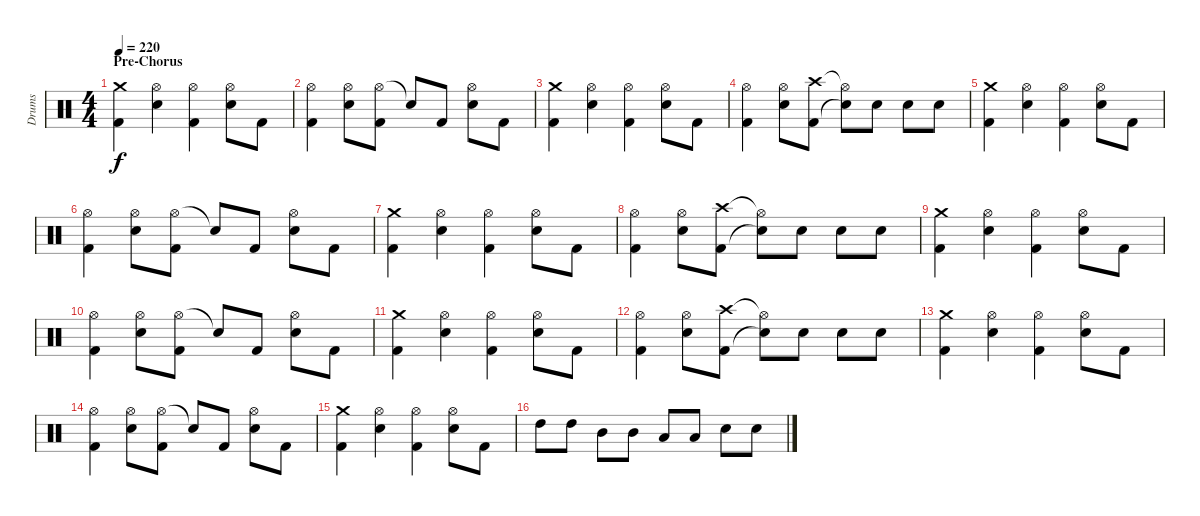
\track ("Drums" "Drums") {instrument percussion}
\staff {score}
\articulation defaults
\ts (4 4)
\section ("" "Pre-Chorus")
\tempo 220
\clef neutral
\ks c
("Crash medium (hit)" "Kick (hit) 2").4{dy f} ("Hi-Hat (open)" "Electric Snare (hit)").4 ("Hi-Hat (open)" "Kick (hit) 2").4 ("Hi-Hat (open)" "Electric Snare (hit)").8 "Kick (hit) 2".8 |
("Hi-Hat (open)" "Kick (hit) 2").4 ("Hi-Hat (open)" "Electric Snare (hit)").8 ("Hi-Hat (open)" "Kick (hit) 2").8 "Snare (hit)"{t}.8 "Kick (hit) 2".8 ("Hi-Hat (open)" "Electric Snare (hit)").8 "Kick (hit) 2".8 |
("Crash medium (hit)" "Kick (hit) 2").4 ("Hi-Hat (open)" "Electric Snare (hit)").4 ("Hi-Hat (open)" "Kick (hit) 2").4 ("Hi-Hat (open)" "Electric Snare (hit)").8 "Kick (hit) 2".8 |
("Hi-Hat (open)" "Kick (hit) 2").4 ("Hi-Hat (open)" "Electric Snare (hit)").8 ("Crash high (hit)" "Kick (hit) 2").8 ("Hi-Hat (open)"{t} "Snare (hit)"{t}).8 "Electric Snare (hit)".8 "Electric Snare (hit)".8 "Electric Snare (hit)".8 |
("Crash medium (hit)" "Kick (hit) 2").4 ("Hi-Hat (open)" "Electric Snare (hit)").4 ("Hi-Hat (open)" "Kick (hit) 2").4 ("Hi-Hat (open)" "Electric Snare (hit)").8 "Kick (hit) 2".8 |
("Hi-Hat (open)" "Kick (hit) 2").4 ("Hi-Hat (open)" "Electric Snare (hit)").8 ("Hi-Hat (open)" "Kick (hit) 2").8 "Snare (hit)"{t}.8 "Kick (hit) 2".8 ("Hi-Hat (open)" "Electric Snare (hit)").8 "Kick (hit) 2".8 |
("Crash medium (hit)" "Kick (hit) 2").4 ("Hi-Hat (open)" "Electric Snare (hit)").4 ("Hi-Hat (open)" "Kick (hit) 2").4 ("Hi-Hat (open)" "Electric Snare (hit)").8 "Kick (hit) 2".8 |
("Hi-Hat (open)" "Kick (hit) 2").4 ("Hi-Hat (open)" "Electric Snare (hit)").8 ("Crash high (hit)" "Kick (hit) 2").8 ("Hi-Hat (open)"{t} "Snare (hit)"{t}).8 "Electric Snare (hit)".8 "Electric Snare (hit)".8 "Electric Snare (hit)".8 |
("Crash medium (hit)" "Kick (hit) 2").4 ("Hi-Hat (open)" "Electric Snare (hit)").4 ("Hi-Hat (open)" "Kick (hit) 2").4 ("Hi-Hat (open)" "Electric Snare (hit)").8 "Kick (hit) 2".8 |
("Hi-Hat (open)" "Kick (hit) 2").4 ("Hi-Hat (open)" "Electric Snare (hit)").8 ("Hi-Hat (open)" "Kick (hit) 2").8 "Snare (hit)"{t}.8 "Kick (hit) 2".8 ("Hi-Hat (open)" "Electric Snare (hit)").8 "Kick (hit) 2".8 |
("Crash medium (hit)" "Kick (hit) 2").4 ("Hi-Hat (open)" "Electric Snare (hit)").4 ("Hi-Hat (open)" "Kick (hit) 2").4 ("Hi-Hat (open)" "Electric Snare (hit)").8 "Kick (hit) 2".8 |
("Hi-Hat (open)" "Kick (hit) 2").4 ("Hi-Hat (open)" "Electric Snare (hit)").8 ("Crash high (hit)" "Kick (hit) 2").8 ("Hi-Hat (open)"{t} "Snare (hit)"{t}).8 "Electric Snare (hit)".8 "Electric Snare (hit)".8 "Electric Snare (hit)".8 |
("Crash medium (hit)" "Kick (hit) 2").4 ("Hi-Hat (open)" "Electric Snare (hit)").4 ("Hi-Hat (open)" "Kick (hit) 2").4 ("Hi-Hat (open)" "Electric Snare (hit)").8 "Kick (hit) 2".8 |
("Hi-Hat (open)" "Kick (hit) 2").4 ("Hi-Hat (open)" "Electric Snare (hit)").8 ("Hi-Hat (open)" "Kick (hit) 2").8 "Snare (hit)"{t}.8 "Kick (hit) 2".8 ("Hi-Hat (open)" "Electric Snare (hit)").8 "Kick (hit) 2".8 |
("Crash medium (hit)" "Kick (hit) 2").4 ("Hi-Hat (open)" "Electric Snare (hit)").4 ("Hi-Hat (open)" "Kick (hit) 2").4 ("Hi-Hat (open)" "Electric Snare (hit)").8 "Kick (hit) 2".8 |
"High Tom (hit)".8 "High Tom (hit)".8 "Mid Tom (hit)".8 "Mid Tom (hit)".8 "Low Tom (hit)".8 "Low Tom (hit)".8 "Electric Snare (hit)".8 "Electric Snare (hit)".8
